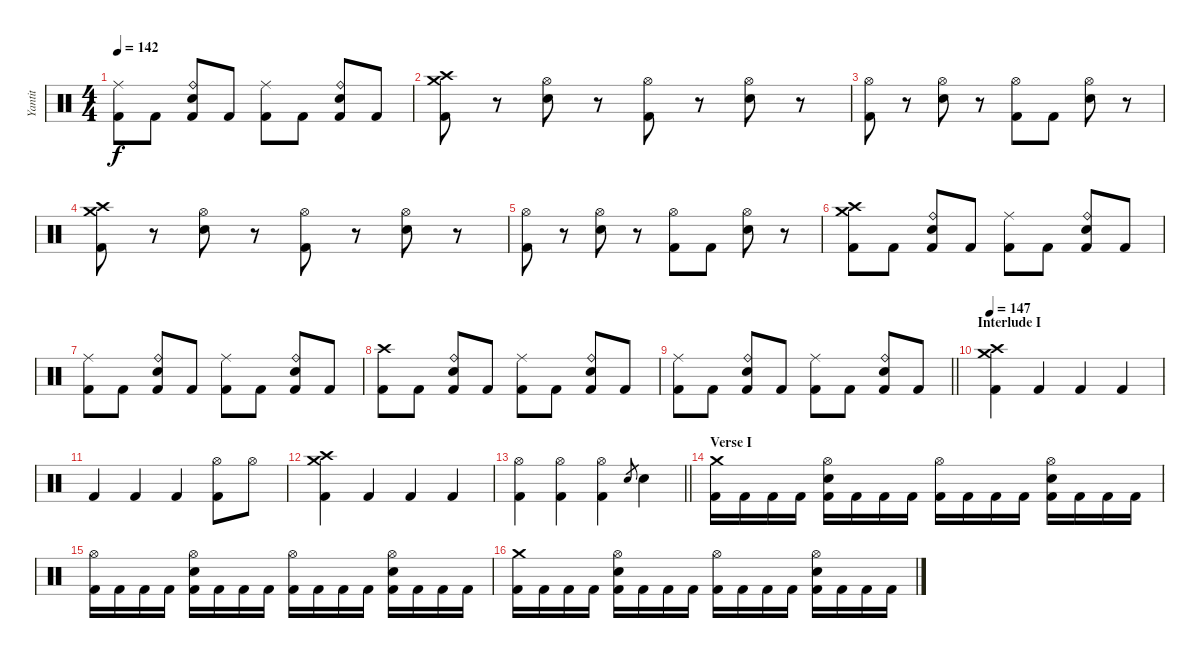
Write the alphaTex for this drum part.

\track ("Yantit" "Yantit") {instrument percussion}
\staff {score}
\articulation defaults
\ts (4 4)
\tempo 142
\clef neutral
\ks c
("Ride (middle)" "Kick (hit) 2").8{dy f} "Kick (hit) 2".8 ("Ride (bell)" "Electric Snare (hit)" "Kick (hit) 2").8 "Kick (hit) 2".8 ("Ride (middle)" "Kick (hit) 2").8 "Kick (hit) 2".8 ("Ride (bell)" "Electric Snare (hit)" "Kick (hit) 2").8 "Kick (hit) 2".8 |
("Crash medium (hit)" "Crash high (hit)" "Kick (hit) 2").8 r.8 ("Hi-Hat (open)" "Electric Snare (hit)").8 r.8 ("Hi-Hat (open)" "Kick (hit) 2").8 r.8 ("Hi-Hat (open)" "Electric Snare (hit)").8 r.8 |
("Hi-Hat (open)" "Kick (hit) 2").8 r.8 ("Hi-Hat (open)" "Electric Snare (hit)").8 r.8 ("Hi-Hat (open)" "Kick (hit) 2").8 "Kick (hit) 2".8 ("Hi-Hat (open)" "Electric Snare (hit)").8 r.8 |
("Crash medium (hit)" "Crash high (hit)" "Kick (hit) 2").8 r.8 ("Hi-Hat (open)" "Electric Snare (hit)").8 r.8 ("Hi-Hat (open)" "Kick (hit) 2").8 r.8 ("Hi-Hat (open)" "Electric Snare (hit)").8 r.8 |
("Hi-Hat (open)" "Kick (hit) 2").8 r.8 ("Hi-Hat (open)" "Electric Snare (hit)").8 r.8 ("Hi-Hat (open)" "Kick (hit) 2").8 "Kick (hit) 2".8 ("Hi-Hat (open)" "Electric Snare (hit)").8 r.8 |
("Crash medium (hit)" "Crash high (hit)" "Kick (hit) 2").8 "Kick (hit) 2".8 ("Ride (bell)" "Electric Snare (hit)" "Kick (hit) 2").8 "Kick (hit) 2".8 ("Ride (middle)" "Kick (hit) 2").8 "Kick (hit) 2".8 ("Ride (bell)" "Electric Snare (hit)" "Kick (hit) 2").8 "Kick (hit) 2".8 |
("Ride (middle)" "Kick (hit) 2").8 "Kick (hit) 2".8 ("Ride (bell)" "Electric Snare (hit)" "Kick (hit) 2").8 "Kick (hit) 2".8 ("Ride (middle)" "Kick (hit) 2").8 "Kick (hit) 2".8 ("Ride (bell)" "Electric Snare (hit)" "Kick (hit) 2").8 "Kick (hit) 2".8 |
("Crash high (hit)" "Kick (hit) 2").8 "Kick (hit) 2".8 ("Ride (bell)" "Electric Snare (hit)" "Kick (hit) 2").8 "Kick (hit) 2".8 ("Ride (middle)" "Kick (hit) 2").8 "Kick (hit) 2".8 ("Ride (bell)" "Electric Snare (hit)" "Kick (hit) 2").8 "Kick (hit) 2".8 |
\barLineRight lightlight
("Ride (middle)" "Kick (hit) 2").8 "Kick (hit) 2".8 ("Ride (bell)" "Electric Snare (hit)" "Kick (hit) 2").8 "Kick (hit) 2".8 ("Ride (middle)" "Kick (hit) 2").8 "Kick (hit) 2".8 ("Ride (bell)" "Electric Snare (hit)" "Kick (hit) 2").8 "Kick (hit) 2".8 |
\section ("" "Interlude I")
\tempo 147
("Crash medium (hit)" "Crash high (hit)" "Kick (hit) 2").4 "Kick (hit) 2".4 "Kick (hit) 2".4 "Kick (hit) 2".4 |
"Kick (hit) 2".4 "Kick (hit) 2".4 "Kick (hit) 2".4 ("Hi-Hat (open)" "Kick (hit) 2").8 "Hi-Hat (open)".8 |
("Crash high (hit)" "Crash medium (hit)" "Kick (hit) 2").4 "Kick (hit) 2".4 "Kick (hit) 2".4 "Kick (hit) 2".4 |
\barLineRight lightlight
("Hi-Hat (open)" "Kick (hit) 2").4 ("Hi-Hat (open)" "Kick (hit) 2").4 ("Hi-Hat (open)" "Kick (hit) 2").4 "Electric Snare (hit)".8{gr} "Electric Snare (hit)".4 |
\section ("" "Verse I")
("Crash medium (hit)" "Kick (hit) 2").16 "Kick (hit) 2".16 "Kick (hit) 2".16 "Kick (hit) 2".16 ("Hi-Hat (open)" "Electric Snare (hit)" "Kick (hit) 2").16 "Kick (hit) 2".16 "Kick (hit) 2".16 "Kick (hit) 2".16 ("Hi-Hat (open)" "Kick (hit) 2").16 "Kick (hit) 2".16 "Kick (hit) 2".16 "Kick (hit) 2".16 ("Hi-Hat (open)" "Electric Snare (hit)" "Kick (hit) 2").16 "Kick (hit) 2".16 "Kick (hit) 2".16 "Kick (hit) 2".16 |
("Hi-Hat (open)" "Kick (hit) 2").16 "Kick (hit) 2".16 "Kick (hit) 2".16 "Kick (hit) 2".16 ("Hi-Hat (open)" "Electric Snare (hit)" "Kick (hit) 2").16 "Kick (hit) 2".16 "Kick (hit) 2".16 "Kick (hit) 2".16 ("Hi-Hat (open)" "Kick (hit) 2").16 "Kick (hit) 2".16 "Kick (hit) 2".16 "Kick (hit) 2".16 ("Hi-Hat (open)" "Electric Snare (hit)" "Kick (hit) 2").16 "Kick (hit) 2".16 "Kick (hit) 2".16 "Kick (hit) 2".16 |
("Crash medium (hit)" "Kick (hit) 2").16 "Kick (hit) 2".16 "Kick (hit) 2".16 "Kick (hit) 2".16 ("Hi-Hat (open)" "Electric Snare (hit)" "Kick (hit) 2").16 "Kick (hit) 2".16 "Kick (hit) 2".16 "Kick (hit) 2".16 ("Hi-Hat (open)" "Kick (hit) 2").16 "Kick (hit) 2".16 "Kick (hit) 2".16 "Kick (hit) 2".16 ("Hi-Hat (open)" "Electric Snare (hit)" "Kick (hit) 2").16 "Kick (hit) 2".16 "Kick (hit) 2".16 "Kick (hit) 2".16
